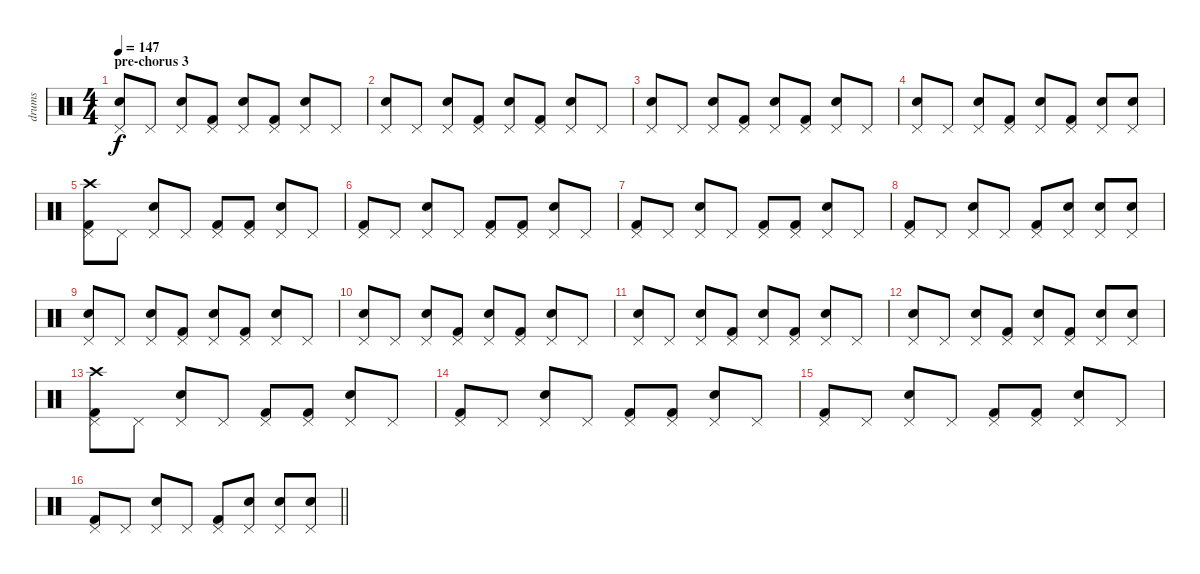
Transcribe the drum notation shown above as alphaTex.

\track ("drums" "drums") {instrument percussion}
\staff {score}
\articulation defaults
\ts (4 4)
\section ("" "pre-chorus 3")
\tempo 147
\clef neutral
\ks c
("Snare (hit) 2" "Pedal Hi-Hat (hit)").8{dy f} "Pedal Hi-Hat (hit)".8 ("Snare (hit) 2" "Pedal Hi-Hat (hit)").8 ("Kick (hit) 2" "Pedal Hi-Hat (hit)").8 ("Snare (hit) 2" "Pedal Hi-Hat (hit)").8 ("Kick (hit) 2" "Pedal Hi-Hat (hit)").8 ("Snare (hit) 2" "Pedal Hi-Hat (hit)").8 "Pedal Hi-Hat (hit)".8 |
("Snare (hit) 2" "Pedal Hi-Hat (hit)").8 "Pedal Hi-Hat (hit)".8 ("Snare (hit) 2" "Pedal Hi-Hat (hit)").8 ("Kick (hit) 2" "Pedal Hi-Hat (hit)").8 ("Snare (hit) 2" "Pedal Hi-Hat (hit)").8 ("Kick (hit) 2" "Pedal Hi-Hat (hit)").8 ("Snare (hit) 2" "Pedal Hi-Hat (hit)").8 "Pedal Hi-Hat (hit)".8 |
("Snare (hit) 2" "Pedal Hi-Hat (hit)").8 "Pedal Hi-Hat (hit)".8 ("Snare (hit) 2" "Pedal Hi-Hat (hit)").8 ("Kick (hit) 2" "Pedal Hi-Hat (hit)").8 ("Snare (hit) 2" "Pedal Hi-Hat (hit)").8 ("Kick (hit) 2" "Pedal Hi-Hat (hit)").8 ("Snare (hit) 2" "Pedal Hi-Hat (hit)").8 "Pedal Hi-Hat (hit)".8 |
("Snare (hit) 2" "Pedal Hi-Hat (hit)").8 "Pedal Hi-Hat (hit)".8 ("Snare (hit) 2" "Pedal Hi-Hat (hit)").8 ("Kick (hit) 2" "Pedal Hi-Hat (hit)").8 ("Snare (hit) 2" "Pedal Hi-Hat (hit)").8 ("Kick (hit) 2" "Pedal Hi-Hat (hit)").8 ("Snare (hit) 2" "Pedal Hi-Hat (hit)").8 ("Snare (hit) 2" "Pedal Hi-Hat (hit)").8 |
("Kick (hit) 2" "Crash high (hit)" "Pedal Hi-Hat (hit)").8 "Pedal Hi-Hat (hit)".8 ("Snare (hit) 2" "Pedal Hi-Hat (hit)").8 "Pedal Hi-Hat (hit)".8 ("Kick (hit) 2" "Pedal Hi-Hat (hit)").8 ("Kick (hit) 2" "Pedal Hi-Hat (hit)").8 ("Snare (hit) 2" "Pedal Hi-Hat (hit)").8 "Pedal Hi-Hat (hit)".8 |
("Kick (hit) 2" "Pedal Hi-Hat (hit)").8 "Pedal Hi-Hat (hit)".8 ("Snare (hit) 2" "Pedal Hi-Hat (hit)").8 "Pedal Hi-Hat (hit)".8 ("Kick (hit) 2" "Pedal Hi-Hat (hit)").8 ("Kick (hit) 2" "Pedal Hi-Hat (hit)").8 ("Snare (hit) 2" "Pedal Hi-Hat (hit)").8 "Pedal Hi-Hat (hit)".8 |
("Kick (hit) 2" "Pedal Hi-Hat (hit)").8 "Pedal Hi-Hat (hit)".8 ("Snare (hit) 2" "Pedal Hi-Hat (hit)").8 "Pedal Hi-Hat (hit)".8 ("Kick (hit) 2" "Pedal Hi-Hat (hit)").8 ("Kick (hit) 2" "Pedal Hi-Hat (hit)").8 ("Snare (hit) 2" "Pedal Hi-Hat (hit)").8 "Pedal Hi-Hat (hit)".8 |
("Kick (hit) 2" "Pedal Hi-Hat (hit)").8 "Pedal Hi-Hat (hit)".8 ("Snare (hit) 2" "Pedal Hi-Hat (hit)").8 "Pedal Hi-Hat (hit)".8 ("Kick (hit) 2" "Pedal Hi-Hat (hit)").8 ("Snare (hit) 2" "Pedal Hi-Hat (hit)").8 ("Snare (hit) 2" "Pedal Hi-Hat (hit)").8 ("Snare (hit) 2" "Pedal Hi-Hat (hit)").8 |
("Snare (hit) 2" "Pedal Hi-Hat (hit)").8 "Pedal Hi-Hat (hit)".8 ("Snare (hit) 2" "Pedal Hi-Hat (hit)").8 ("Kick (hit) 2" "Pedal Hi-Hat (hit)").8 ("Snare (hit) 2" "Pedal Hi-Hat (hit)").8 ("Kick (hit) 2" "Pedal Hi-Hat (hit)").8 ("Snare (hit) 2" "Pedal Hi-Hat (hit)").8 "Pedal Hi-Hat (hit)".8 |
("Snare (hit) 2" "Pedal Hi-Hat (hit)").8 "Pedal Hi-Hat (hit)".8 ("Snare (hit) 2" "Pedal Hi-Hat (hit)").8 ("Kick (hit) 2" "Pedal Hi-Hat (hit)").8 ("Snare (hit) 2" "Pedal Hi-Hat (hit)").8 ("Kick (hit) 2" "Pedal Hi-Hat (hit)").8 ("Snare (hit) 2" "Pedal Hi-Hat (hit)").8 "Pedal Hi-Hat (hit)".8 |
("Snare (hit) 2" "Pedal Hi-Hat (hit)").8 "Pedal Hi-Hat (hit)".8 ("Snare (hit) 2" "Pedal Hi-Hat (hit)").8 ("Kick (hit) 2" "Pedal Hi-Hat (hit)").8 ("Snare (hit) 2" "Pedal Hi-Hat (hit)").8 ("Kick (hit) 2" "Pedal Hi-Hat (hit)").8 ("Snare (hit) 2" "Pedal Hi-Hat (hit)").8 "Pedal Hi-Hat (hit)".8 |
("Snare (hit) 2" "Pedal Hi-Hat (hit)").8 "Pedal Hi-Hat (hit)".8 ("Snare (hit) 2" "Pedal Hi-Hat (hit)").8 ("Kick (hit) 2" "Pedal Hi-Hat (hit)").8 ("Snare (hit) 2" "Pedal Hi-Hat (hit)").8 ("Kick (hit) 2" "Pedal Hi-Hat (hit)").8 ("Snare (hit) 2" "Pedal Hi-Hat (hit)").8 ("Snare (hit) 2" "Pedal Hi-Hat (hit)").8 |
("Kick (hit) 2" "Crash high (hit)" "Pedal Hi-Hat (hit)").8 "Pedal Hi-Hat (hit)".8 ("Snare (hit) 2" "Pedal Hi-Hat (hit)").8 "Pedal Hi-Hat (hit)".8 ("Kick (hit) 2" "Pedal Hi-Hat (hit)").8 ("Kick (hit) 2" "Pedal Hi-Hat (hit)").8 ("Snare (hit) 2" "Pedal Hi-Hat (hit)").8 "Pedal Hi-Hat (hit)".8 |
("Kick (hit) 2" "Pedal Hi-Hat (hit)").8 "Pedal Hi-Hat (hit)".8 ("Snare (hit) 2" "Pedal Hi-Hat (hit)").8 "Pedal Hi-Hat (hit)".8 ("Kick (hit) 2" "Pedal Hi-Hat (hit)").8 ("Kick (hit) 2" "Pedal Hi-Hat (hit)").8 ("Snare (hit) 2" "Pedal Hi-Hat (hit)").8 "Pedal Hi-Hat (hit)".8 |
("Kick (hit) 2" "Pedal Hi-Hat (hit)").8 "Pedal Hi-Hat (hit)".8 ("Snare (hit) 2" "Pedal Hi-Hat (hit)").8 "Pedal Hi-Hat (hit)".8 ("Kick (hit) 2" "Pedal Hi-Hat (hit)").8 ("Kick (hit) 2" "Pedal Hi-Hat (hit)").8 ("Snare (hit) 2" "Pedal Hi-Hat (hit)").8 "Pedal Hi-Hat (hit)".8 |
\barLineRight lightlight
("Kick (hit) 2" "Pedal Hi-Hat (hit)").8 "Pedal Hi-Hat (hit)".8 ("Snare (hit) 2" "Pedal Hi-Hat (hit)").8 "Pedal Hi-Hat (hit)".8 ("Kick (hit) 2" "Pedal Hi-Hat (hit)").8 ("Snare (hit) 2" "Pedal Hi-Hat (hit)").8 ("Snare (hit) 2" "Pedal Hi-Hat (hit)").8 ("Snare (hit) 2" "Pedal Hi-Hat (hit)").8
